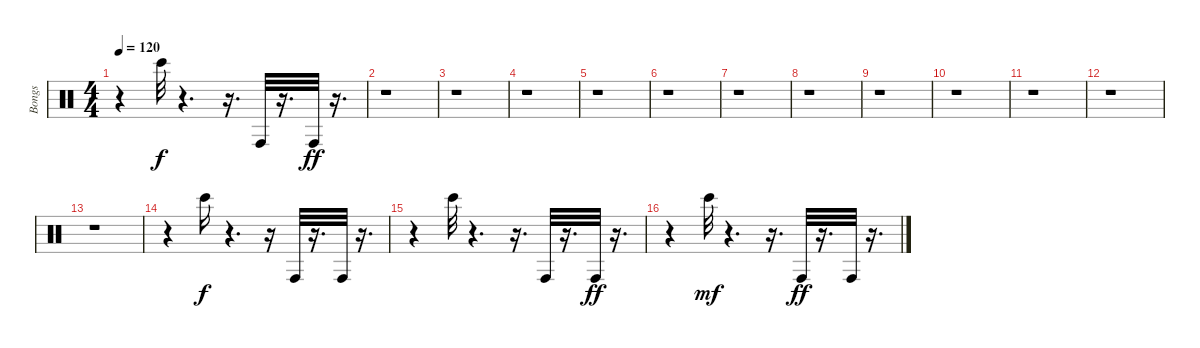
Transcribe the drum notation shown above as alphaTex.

\track ("Bongs" "Bongs") {instrument percussion}
\staff {score}
\articulation defaults
\ts (4 4)
\tempo 120
\clef neutral
\ks c
r.4{dy ff} "Bongo High (hit)".32{dy f} r.4{d} r.16{d} "Conga high (hit)".32 r.16{d} "Conga high (hit)".32{dy ff} r.16{d} |
r.1 |
r.1 |
r.1 |
r.1 |
r.1 |
r.1 |
r.1 |
r.1 |
r.1 |
r.1 |
r.1 |
r.1 |
r.4 "Bongo High (hit)".16{dy f} r.4{d} r.16 "Conga high (hit)".32 r.16{d} "Conga high (hit)".32 r.16{d} |
r.4 "Bongo High (hit)".32 r.4{d} r.16{d} "Conga high (hit)".32 r.16{d} "Conga high (hit)".32{dy ff} r.16{d} |
r.4 "Bongo High (hit)".32{dy mf} r.4{d} r.16{d} "Conga high (hit)".32{dy ff} r.16{d} "Conga high (hit)".32 r.16{d}
